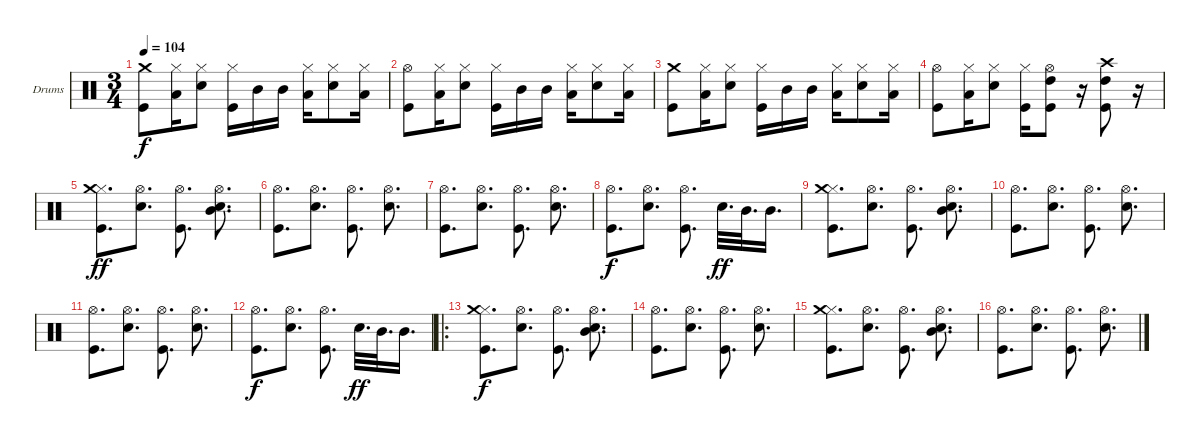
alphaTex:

\bracketExtendMode groupsimilarinstruments
\firstSystemTrackNameOrientation horizontal
\otherSystemsTrackNameOrientation horizontal
\track ("Drumkit" "Drums") {instrument percussion}
\staff {score}
\articulation defaults
\ts (3 4)
\tempo 104
\clef neutral
\ks c
("Kick (hit)" "Crash medium (hit)").8{dy f} ("Hi-Hat (closed)" "Low Tom (hit)").16 ("Snare (hit) 2" "Hi-Hat (closed)").8 ("Hi-Hat (closed)" "Kick (hit)").16 "Mid Tom (hit)".16 "Mid Tom (hit)".16 ("Hi-Hat (closed)" "Low Tom (hit)").16 ("Snare (hit) 2" "Hi-Hat (closed)").8 ("Hi-Hat (closed)" "Low Tom (hit)").16 |
("Kick (hit)" "Hi-Hat (open)").8 ("Hi-Hat (closed)" "Low Tom (hit)").16 ("Snare (hit) 2" "Hi-Hat (closed)").8 ("Hi-Hat (closed)" "Kick (hit)").16 "Mid Tom (hit)".16 "Mid Tom (hit)".16 ("Hi-Hat (closed)" "Low Tom (hit)").16 ("Snare (hit) 2" "Hi-Hat (closed)").8 ("Hi-Hat (closed)" "Low Tom (hit)").16 |
("Kick (hit)" "Crash medium (hit)").8 ("Hi-Hat (closed)" "Low Tom (hit)").16 ("Snare (hit) 2" "Hi-Hat (closed)").8 ("Hi-Hat (closed)" "Kick (hit)").16 "Mid Tom (hit)".16 "Mid Tom (hit)".16 ("Hi-Hat (closed)" "Low Tom (hit)").16 ("Snare (hit) 2" "Hi-Hat (closed)").8 ("Hi-Hat (closed)" "Low Tom (hit)").16 |
("Kick (hit)" "Hi-Hat (open)").8 ("Hi-Hat (closed)" "Low Tom (hit)").16 ("Snare (hit) 2" "Hi-Hat (closed)").8 ("Hi-Hat (closed)" "Kick (hit)").16 ("Kick (hit)" "Hi-Hat (open)" "High Tom (hit)").8 r.16 ("Kick (hit)" "High Tom (hit)" "Crash high (hit)").8 r.16 |
("Kick (hit)" "Hi-Hat (closed)" "Crash medium (hit)").8{d dy ff} ("Snare (hit) 2" "Hi-Hat (open)").8{d} ("Kick (hit)" "Hi-Hat (open)").8{d} ("Snare (hit) 2" "Hi-Hat (open)" "Mid Tom (hit)").8{d} |
("Kick (hit)" "Hi-Hat (open)").8{d} ("Snare (hit) 2" "Hi-Hat (open)").8{d} ("Kick (hit)" "Hi-Hat (open)").8{d} ("Snare (hit) 2" "Hi-Hat (open)").8{d} |
("Kick (hit)" "Hi-Hat (open)").8{d} ("Snare (hit) 2" "Hi-Hat (open)").8{d} ("Kick (hit)" "Hi-Hat (open)").8{d} ("Snare (hit) 2" "Hi-Hat (open)").8{d} |
("Kick (hit)" "Hi-Hat (open)").8{d dy f} ("Snare (hit) 2" "Hi-Hat (open)").8{d} ("Kick (hit)" "Hi-Hat (open)").8{d} "Snare (hit) 2".32{d dy ff} "Mid Tom (hit)".32{d} "Mid Tom (hit)".16{d} |
("Kick (hit)" "Hi-Hat (closed)" "Crash medium (hit)").8{d} ("Snare (hit) 2" "Hi-Hat (open)").8{d} ("Kick (hit)" "Hi-Hat (open)").8{d} ("Snare (hit) 2" "Hi-Hat (open)" "Mid Tom (hit)").8{d} |
("Kick (hit)" "Hi-Hat (open)").8{d} ("Snare (hit) 2" "Hi-Hat (open)").8{d} ("Kick (hit)" "Hi-Hat (open)").8{d} ("Snare (hit) 2" "Hi-Hat (open)").8{d} |
("Kick (hit)" "Hi-Hat (open)").8{d} ("Snare (hit) 2" "Hi-Hat (open)").8{d} ("Kick (hit)" "Hi-Hat (open)").8{d} ("Snare (hit) 2" "Hi-Hat (open)").8{d} |
("Kick (hit)" "Hi-Hat (open)").8{d dy f} ("Snare (hit) 2" "Hi-Hat (open)").8{d} ("Kick (hit)" "Hi-Hat (open)").8{d} "Snare (hit) 2".32{d dy ff} "Mid Tom (hit)".32{d} "Mid Tom (hit)".16{d} |
\ro
("Kick (hit)" "Hi-Hat (closed)" "Crash medium (hit)").8{d dy f} ("Snare (hit) 2" "Hi-Hat (open)").8{d} ("Kick (hit)" "Hi-Hat (open)").8{d} ("Snare (hit) 2" "Hi-Hat (open)" "Mid Tom (hit)").8{d} |
("Kick (hit)" "Hi-Hat (open)").8{d} ("Snare (hit) 2" "Hi-Hat (open)").8{d} ("Kick (hit)" "Hi-Hat (open)").8{d} ("Snare (hit) 2" "Hi-Hat (open)").8{d} |
("Kick (hit)" "Hi-Hat (closed)" "Crash medium (hit)").8{d} ("Snare (hit) 2" "Hi-Hat (open)").8{d} ("Kick (hit)" "Hi-Hat (open)").8{d} ("Snare (hit) 2" "Hi-Hat (open)" "Mid Tom (hit)").8{d} |
("Kick (hit)" "Hi-Hat (open)").8{d} ("Snare (hit) 2" "Hi-Hat (open)").8{d} ("Kick (hit)" "Hi-Hat (open)").8{d} ("Snare (hit) 2" "Hi-Hat (open)").8{d}
